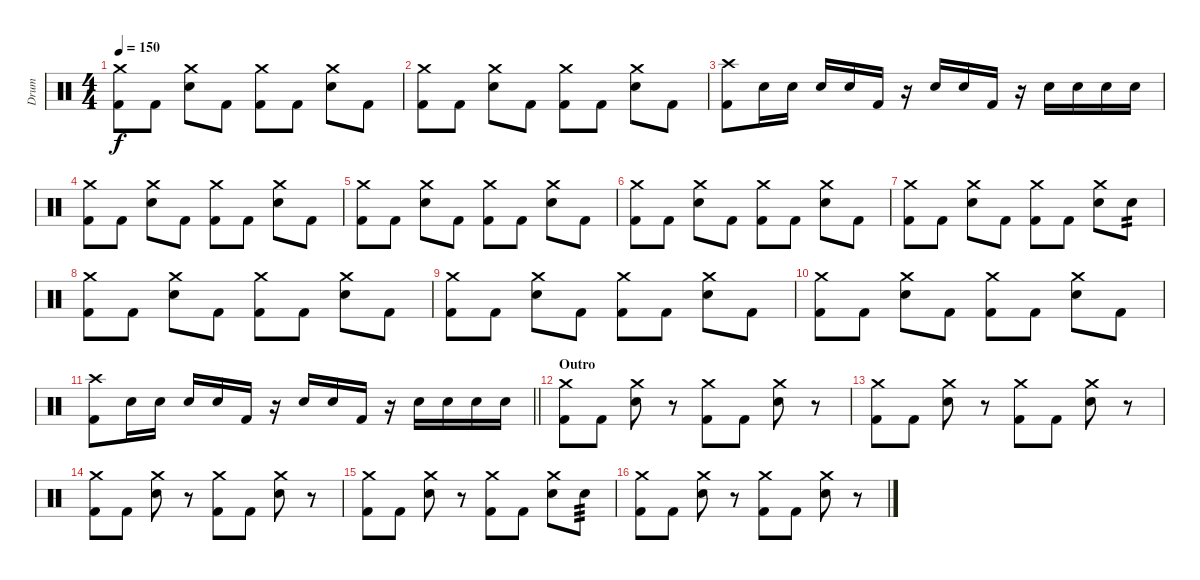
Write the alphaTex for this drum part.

\track ("Drum" "Drum") {instrument percussion}
\staff {score}
\articulation defaults
\ts (4 4)
\tempo 150
\clef neutral
\ks c
("Kick (hit) 2" "Crash medium (hit)").8{dy f} "Kick (hit) 2".8 ("Electric Snare (hit)" "Crash medium (hit)").8 "Kick (hit) 2".8 ("Kick (hit) 2" "Crash medium (hit)").8 "Kick (hit) 2".8 ("Electric Snare (hit)" "Crash medium (hit)").8 "Kick (hit) 2".8 |
("Kick (hit) 2" "Crash medium (hit)").8 "Kick (hit) 2".8 ("Electric Snare (hit)" "Crash medium (hit)").8 "Kick (hit) 2".8 ("Kick (hit) 2" "Crash medium (hit)").8 "Kick (hit) 2".8 ("Electric Snare (hit)" "Crash medium (hit)").8 "Kick (hit) 2".8 |
("Kick (hit) 2" "Crash high (hit)").8 "Electric Snare (hit)".16 "Electric Snare (hit)".16 "Electric Snare (hit)".16 "Electric Snare (hit)".16 "Kick (hit) 2".16 r.16 "Electric Snare (hit)".16 "Electric Snare (hit)".16 "Kick (hit) 2".16 r.16 "Electric Snare (hit)".16 "Electric Snare (hit)".16 "Electric Snare (hit)".16 "Electric Snare (hit)".16 |
("Kick (hit) 2" "Crash medium (hit)").8 "Kick (hit) 2".8 ("Electric Snare (hit)" "Crash medium (hit)").8 "Kick (hit) 2".8 ("Kick (hit) 2" "Crash medium (hit)").8 "Kick (hit) 2".8 ("Electric Snare (hit)" "Crash medium (hit)").8 "Kick (hit) 2".8 |
("Kick (hit) 2" "Crash medium (hit)").8 "Kick (hit) 2".8 ("Electric Snare (hit)" "Crash medium (hit)").8 "Kick (hit) 2".8 ("Kick (hit) 2" "Crash medium (hit)").8 "Kick (hit) 2".8 ("Electric Snare (hit)" "Crash medium (hit)").8 "Kick (hit) 2".8 |
("Kick (hit) 2" "Crash medium (hit)").8 "Kick (hit) 2".8 ("Electric Snare (hit)" "Crash medium (hit)").8 "Kick (hit) 2".8 ("Kick (hit) 2" "Crash medium (hit)").8 "Kick (hit) 2".8 ("Electric Snare (hit)" "Crash medium (hit)").8 "Kick (hit) 2".8 |
("Kick (hit) 2" "Crash medium (hit)").8 "Kick (hit) 2".8 ("Electric Snare (hit)" "Crash medium (hit)").8 "Kick (hit) 2".8 ("Kick (hit) 2" "Crash medium (hit)").8 "Kick (hit) 2".8 ("Electric Snare (hit)" "Crash medium (hit)").8 "Electric Snare (hit)".8{tp 2} |
("Kick (hit) 2" "Crash medium (hit)").8 "Kick (hit) 2".8 ("Electric Snare (hit)" "Crash medium (hit)").8 "Kick (hit) 2".8 ("Kick (hit) 2" "Crash medium (hit)").8 "Kick (hit) 2".8 ("Electric Snare (hit)" "Crash medium (hit)").8 "Kick (hit) 2".8 |
("Kick (hit) 2" "Crash medium (hit)").8 "Kick (hit) 2".8 ("Electric Snare (hit)" "Crash medium (hit)").8 "Kick (hit) 2".8 ("Kick (hit) 2" "Crash medium (hit)").8 "Kick (hit) 2".8 ("Electric Snare (hit)" "Crash medium (hit)").8 "Kick (hit) 2".8 |
("Kick (hit) 2" "Crash medium (hit)").8 "Kick (hit) 2".8 ("Electric Snare (hit)" "Crash medium (hit)").8 "Kick (hit) 2".8 ("Kick (hit) 2" "Crash medium (hit)").8 "Kick (hit) 2".8 ("Electric Snare (hit)" "Crash medium (hit)").8 "Kick (hit) 2".8 |
\barLineRight lightlight
("Kick (hit) 2" "Crash high (hit)").8 "Electric Snare (hit)".16 "Electric Snare (hit)".16 "Electric Snare (hit)".16 "Electric Snare (hit)".16 "Kick (hit) 2".16 r.16 "Electric Snare (hit)".16 "Electric Snare (hit)".16 "Kick (hit) 2".16 r.16 "Electric Snare (hit)".16 "Electric Snare (hit)".16 "Electric Snare (hit)".16 "Electric Snare (hit)".16 |
\section ("" "Outro")
("Kick (hit) 2" "Crash medium (hit)").8 "Kick (hit) 2".8 ("Electric Snare (hit)" "Crash medium (hit)").8 r.8 ("Kick (hit) 2" "Crash medium (hit)").8 "Kick (hit) 2".8 ("Electric Snare (hit)" "Crash medium (hit)").8 r.8 |
("Kick (hit) 2" "Crash medium (hit)").8 "Kick (hit) 2".8 ("Electric Snare (hit)" "Crash medium (hit)").8 r.8 ("Kick (hit) 2" "Crash medium (hit)").8 "Kick (hit) 2".8 ("Electric Snare (hit)" "Crash medium (hit)").8 r.8 |
("Kick (hit) 2" "Crash medium (hit)").8 "Kick (hit) 2".8 ("Electric Snare (hit)" "Crash medium (hit)").8 r.8 ("Kick (hit) 2" "Crash medium (hit)").8 "Kick (hit) 2".8 ("Electric Snare (hit)" "Crash medium (hit)").8 r.8 |
("Kick (hit) 2" "Crash medium (hit)").8 "Kick (hit) 2".8 ("Electric Snare (hit)" "Crash medium (hit)").8 r.8 ("Kick (hit) 2" "Crash medium (hit)").8 "Kick (hit) 2".8 ("Electric Snare (hit)" "Crash medium (hit)").8 "Electric Snare (hit)".8{tp 3} |
("Kick (hit) 2" "Crash medium (hit)").8 "Kick (hit) 2".8 ("Electric Snare (hit)" "Crash medium (hit)").8 r.8 ("Kick (hit) 2" "Crash medium (hit)").8 "Kick (hit) 2".8 ("Electric Snare (hit)" "Crash medium (hit)").8 r.8
